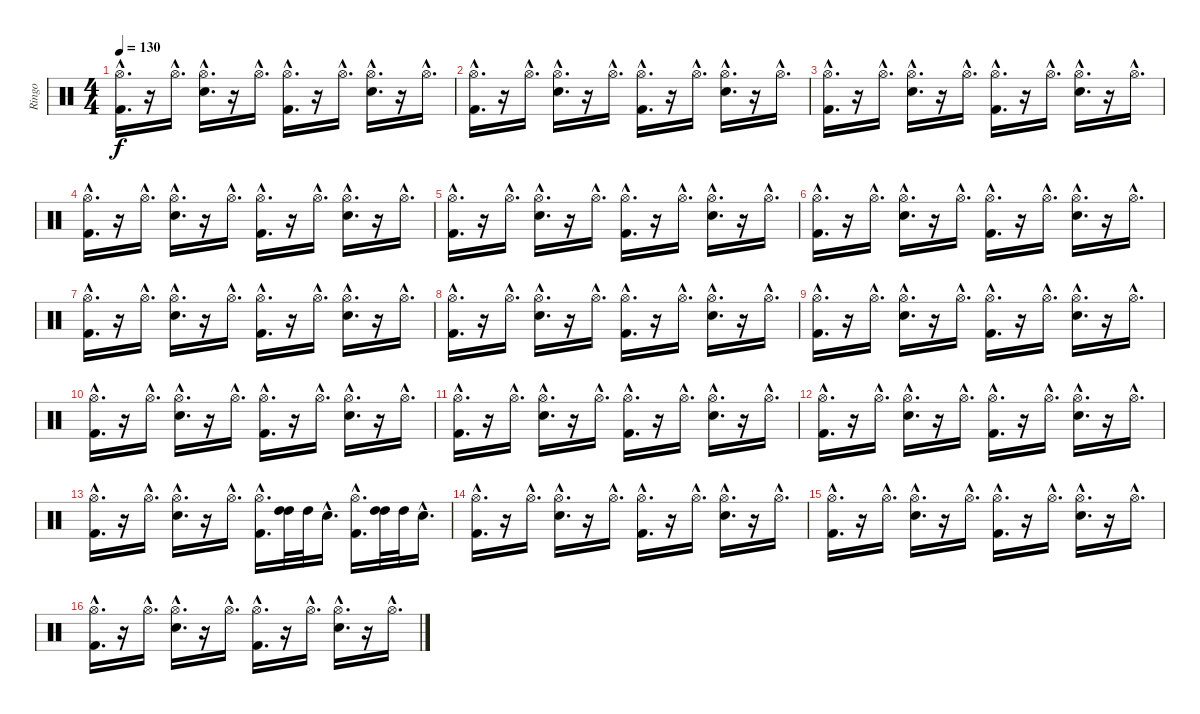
\track ("Ringo" "Ringo") {instrument percussion}
\staff {score}
\articulation defaults
\ts (4 4)
\tempo 130
\clef neutral
\ks c
("Hi-Hat (open)"{hac} "Kick (hit) 2"{hac}).16{d dy f} r.16 "Hi-Hat (open)"{hac}.16{d} ("Hi-Hat (open)"{hac} "Snare (hit) 2"{hac}).16{d} r.16 "Hi-Hat (open)"{hac}.16{d} ("Hi-Hat (open)"{hac} "Kick (hit) 2"{hac}).16{d} r.16 "Hi-Hat (open)"{hac}.16{d} ("Hi-Hat (open)"{hac} "Snare (hit) 2"{hac}).16{d} r.16 "Hi-Hat (open)"{hac}.16{d} |
("Kick (hit) 2"{hac} "Hi-Hat (open)"{hac}).16{d} r.16 "Hi-Hat (open)"{hac}.16{d} ("Snare (hit) 2"{hac} "Hi-Hat (open)"{hac}).16{d} r.16 "Hi-Hat (open)"{hac}.16{d} ("Kick (hit) 2"{hac} "Hi-Hat (open)"{hac}).16{d} r.16 "Hi-Hat (open)"{hac}.16{d} ("Snare (hit) 2"{hac} "Hi-Hat (open)"{hac}).16{d} r.16 "Hi-Hat (open)"{hac}.16{d} |
("Hi-Hat (open)"{hac} "Kick (hit) 2"{hac}).16{d} r.16 "Hi-Hat (open)"{hac}.16{d} ("Hi-Hat (open)"{hac} "Snare (hit) 2"{hac}).16{d} r.16 "Hi-Hat (open)"{hac}.16{d} ("Hi-Hat (open)"{hac} "Kick (hit) 2"{hac}).16{d} r.16 "Hi-Hat (open)"{hac}.16{d} ("Hi-Hat (open)"{hac} "Snare (hit) 2"{hac}).16{d} r.16 "Hi-Hat (open)"{hac}.16{d} |
("Hi-Hat (open)"{hac} "Kick (hit) 2"{hac}).16{d} r.16 "Hi-Hat (open)"{hac}.16{d} ("Hi-Hat (open)"{hac} "Snare (hit) 2"{hac}).16{d} r.16 "Hi-Hat (open)"{hac}.16{d} ("Hi-Hat (open)"{hac} "Kick (hit) 2"{hac}).16{d} r.16 "Hi-Hat (open)"{hac}.16{d} ("Hi-Hat (open)"{hac} "Snare (hit) 2"{hac}).16{d} r.16 "Hi-Hat (open)"{hac}.16{d} |
("Hi-Hat (open)"{hac} "Kick (hit) 2"{hac}).16{d} r.16 "Hi-Hat (open)"{hac}.16{d} ("Hi-Hat (open)"{hac} "Snare (hit) 2"{hac}).16{d} r.16 "Hi-Hat (open)"{hac}.16{d} ("Hi-Hat (open)"{hac} "Kick (hit) 2"{hac}).16{d} r.16 "Hi-Hat (open)"{hac}.16{d} ("Hi-Hat (open)"{hac} "Snare (hit) 2"{hac}).16{d} r.16 "Hi-Hat (open)"{hac}.16{d} |
("Kick (hit) 2"{hac} "Hi-Hat (open)"{hac}).16{d} r.16 "Hi-Hat (open)"{hac}.16{d} ("Snare (hit) 2"{hac} "Hi-Hat (open)"{hac}).16{d} r.16 "Hi-Hat (open)"{hac}.16{d} ("Kick (hit) 2"{hac} "Hi-Hat (open)"{hac}).16{d} r.16 "Hi-Hat (open)"{hac}.16{d} ("Snare (hit) 2"{hac} "Hi-Hat (open)"{hac}).16{d} r.16 "Hi-Hat (open)"{hac}.16{d} |
("Hi-Hat (open)"{hac} "Kick (hit) 2"{hac}).16{d} r.16 "Hi-Hat (open)"{hac}.16{d} ("Hi-Hat (open)"{hac} "Snare (hit) 2"{hac}).16{d} r.16 "Hi-Hat (open)"{hac}.16{d} ("Hi-Hat (open)"{hac} "Kick (hit) 2"{hac}).16{d} r.16 "Hi-Hat (open)"{hac}.16{d} ("Hi-Hat (open)"{hac} "Snare (hit) 2"{hac}).16{d} r.16 "Hi-Hat (open)"{hac}.16{d} |
("Hi-Hat (open)"{hac} "Kick (hit) 2"{hac}).16{d} r.16 "Hi-Hat (open)"{hac}.16{d} ("Hi-Hat (open)"{hac} "Snare (hit) 2"{hac}).16{d} r.16 "Hi-Hat (open)"{hac}.16{d} ("Hi-Hat (open)"{hac} "Kick (hit) 2"{hac}).16{d} r.16 "Hi-Hat (open)"{hac}.16{d} ("Hi-Hat (open)"{hac} "Snare (hit) 2"{hac}).16{d} r.16 "Hi-Hat (open)"{hac}.16{d} |
("Hi-Hat (open)"{hac} "Kick (hit) 2"{hac}).16{d} r.16 "Hi-Hat (open)"{hac}.16{d} ("Hi-Hat (open)"{hac} "Snare (hit) 2"{hac}).16{d} r.16 "Hi-Hat (open)"{hac}.16{d} ("Hi-Hat (open)"{hac} "Kick (hit) 2"{hac}).16{d} r.16 "Hi-Hat (open)"{hac}.16{d} ("Hi-Hat (open)"{hac} "Snare (hit) 2"{hac}).16{d} r.16 "Hi-Hat (open)"{hac}.16{d} |
("Kick (hit) 2"{hac} "Hi-Hat (open)"{hac}).16{d} r.16 "Hi-Hat (open)"{hac}.16{d} ("Snare (hit) 2"{hac} "Hi-Hat (open)"{hac}).16{d} r.16 "Hi-Hat (open)"{hac}.16{d} ("Kick (hit) 2"{hac} "Hi-Hat (open)"{hac}).16{d} r.16 "Hi-Hat (open)"{hac}.16{d} ("Snare (hit) 2"{hac} "Hi-Hat (open)"{hac}).16{d} r.16 "Hi-Hat (open)"{hac}.16{d} |
("Hi-Hat (open)"{hac} "Kick (hit) 2"{hac}).16{d} r.16 "Hi-Hat (open)"{hac}.16{d} ("Hi-Hat (open)"{hac} "Snare (hit) 2"{hac}).16{d} r.16 "Hi-Hat (open)"{hac}.16{d} ("Hi-Hat (open)"{hac} "Kick (hit) 2"{hac}).16{d} r.16 "Hi-Hat (open)"{hac}.16{d} ("Hi-Hat (open)"{hac} "Snare (hit) 2"{hac}).16{d} r.16 "Hi-Hat (open)"{hac}.16{d} |
("Hi-Hat (open)"{hac} "Kick (hit) 2"{hac}).16{d} r.16 "Hi-Hat (open)"{hac}.16{d} ("Hi-Hat (open)"{hac} "Snare (hit) 2"{hac}).16{d} r.16 "Hi-Hat (open)"{hac}.16{d} ("Hi-Hat (open)"{hac} "Kick (hit) 2"{hac}).16{d} r.16 "Hi-Hat (open)"{hac}.16{d} ("Hi-Hat (open)"{hac} "Snare (hit) 2"{hac}).16{d} r.16 "Hi-Hat (open)"{hac}.16{d} |
("Hi-Hat (open)"{hac} "Kick (hit) 2"{hac}).16{d} r.16 "Hi-Hat (open)"{hac}.16{d} ("Hi-Hat (open)"{hac} "Snare (hit) 2"{hac}).16{d} r.16 "Hi-Hat (open)"{hac}.16{d} ("Hi-Hat (open)"{hac} "Kick (hit) 2"{hac}).16{d} ("High Tom (hit)" "High Tom (hit)").32 "High Tom (hit)".32 "Snare (hit) 2"{hac}.16{d} ("Hi-Hat (open)"{hac} "Kick (hit) 2"{hac}).16{d} ("High Tom (hit)" "High Tom (hit)").32 "High Tom (hit)".32 "Snare (hit) 2"{hac}.16{d} |
("Kick (hit) 2"{hac} "Hi-Hat (open)"{hac}).16{d} r.16 "Hi-Hat (open)"{hac}.16{d} ("Snare (hit) 2"{hac} "Hi-Hat (open)"{hac}).16{d} r.16 "Hi-Hat (open)"{hac}.16{d} ("Kick (hit) 2"{hac} "Hi-Hat (open)"{hac}).16{d} r.16 "Hi-Hat (open)"{hac}.16{d} ("Snare (hit) 2"{hac} "Hi-Hat (open)"{hac}).16{d} r.16 "Hi-Hat (open)"{hac}.16{d} |
("Hi-Hat (open)"{hac} "Kick (hit) 2"{hac}).16{d} r.16 "Hi-Hat (open)"{hac}.16{d} ("Hi-Hat (open)"{hac} "Snare (hit) 2"{hac}).16{d} r.16 "Hi-Hat (open)"{hac}.16{d} ("Hi-Hat (open)"{hac} "Kick (hit) 2"{hac}).16{d} r.16 "Hi-Hat (open)"{hac}.16{d} ("Hi-Hat (open)"{hac} "Snare (hit) 2"{hac}).16{d} r.16 "Hi-Hat (open)"{hac}.16{d} |
("Hi-Hat (open)"{hac} "Kick (hit) 2"{hac}).16{d} r.16 "Hi-Hat (open)"{hac}.16{d} ("Hi-Hat (open)"{hac} "Snare (hit) 2"{hac}).16{d} r.16 "Hi-Hat (open)"{hac}.16{d} ("Hi-Hat (open)"{hac} "Kick (hit) 2"{hac}).16{d} r.16 "Hi-Hat (open)"{hac}.16{d} ("Hi-Hat (open)"{hac} "Snare (hit) 2"{hac}).16{d} r.16 "Hi-Hat (open)"{hac}.16{d}
